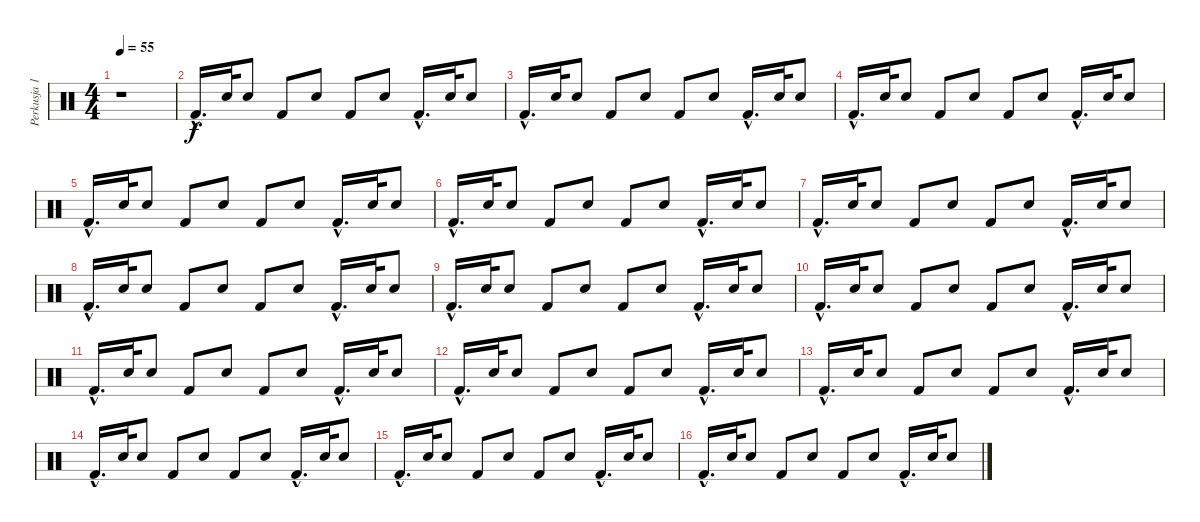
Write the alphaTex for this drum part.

\track ("Perkusja 1" "Perkusja 1") {instrument percussion}
\staff {score}
\articulation defaults
\ts (4 4)
\tempo 55
\clef neutral
\ks c
r.1{dy f} |
"Kick (hit) 2"{hac}.16{d} "Electric Snare (hit)".32 "Electric Snare (hit)".8 "Kick (hit) 2".8 "Electric Snare (hit)".8 "Kick (hit) 2".8 "Electric Snare (hit)".8 "Kick (hit) 2"{hac}.16{d} "Electric Snare (hit)".32 "Electric Snare (hit)".8 |
"Kick (hit) 2"{hac}.16{d} "Electric Snare (hit)".32 "Electric Snare (hit)".8 "Kick (hit) 2".8 "Electric Snare (hit)".8 "Kick (hit) 2".8 "Electric Snare (hit)".8 "Kick (hit) 2"{hac}.16{d} "Electric Snare (hit)".32 "Electric Snare (hit)".8 |
"Kick (hit) 2"{hac}.16{d} "Electric Snare (hit)".32 "Electric Snare (hit)".8 "Kick (hit) 2".8 "Electric Snare (hit)".8 "Kick (hit) 2".8 "Electric Snare (hit)".8 "Kick (hit) 2"{hac}.16{d} "Electric Snare (hit)".32 "Electric Snare (hit)".8 |
"Kick (hit) 2"{hac}.16{d} "Electric Snare (hit)".32 "Electric Snare (hit)".8 "Kick (hit) 2".8 "Electric Snare (hit)".8 "Kick (hit) 2".8 "Electric Snare (hit)".8 "Kick (hit) 2"{hac}.16{d} "Electric Snare (hit)".32 "Electric Snare (hit)".8 |
"Kick (hit) 2"{hac}.16{d} "Electric Snare (hit)".32 "Electric Snare (hit)".8 "Kick (hit) 2".8 "Electric Snare (hit)".8 "Kick (hit) 2".8 "Electric Snare (hit)".8 "Kick (hit) 2"{hac}.16{d} "Electric Snare (hit)".32 "Electric Snare (hit)".8 |
"Kick (hit) 2"{hac}.16{d} "Electric Snare (hit)".32 "Electric Snare (hit)".8 "Kick (hit) 2".8 "Electric Snare (hit)".8 "Kick (hit) 2".8 "Electric Snare (hit)".8 "Kick (hit) 2"{hac}.16{d} "Electric Snare (hit)".32 "Electric Snare (hit)".8 |
"Kick (hit) 2"{hac}.16{d} "Electric Snare (hit)".32 "Electric Snare (hit)".8 "Kick (hit) 2".8 "Electric Snare (hit)".8 "Kick (hit) 2".8 "Electric Snare (hit)".8 "Kick (hit) 2"{hac}.16{d} "Electric Snare (hit)".32 "Electric Snare (hit)".8 |
"Kick (hit) 2"{hac}.16{d} "Electric Snare (hit)".32 "Electric Snare (hit)".8 "Kick (hit) 2".8 "Electric Snare (hit)".8 "Kick (hit) 2".8 "Electric Snare (hit)".8 "Kick (hit) 2"{hac}.16{d} "Electric Snare (hit)".32 "Electric Snare (hit)".8 |
"Kick (hit) 2"{hac}.16{d} "Electric Snare (hit)".32 "Electric Snare (hit)".8 "Kick (hit) 2".8 "Electric Snare (hit)".8 "Kick (hit) 2".8 "Electric Snare (hit)".8 "Kick (hit) 2"{hac}.16{d} "Electric Snare (hit)".32 "Electric Snare (hit)".8 |
"Kick (hit) 2"{hac}.16{d} "Electric Snare (hit)".32 "Electric Snare (hit)".8 "Kick (hit) 2".8 "Electric Snare (hit)".8 "Kick (hit) 2".8 "Electric Snare (hit)".8 "Kick (hit) 2"{hac}.16{d} "Electric Snare (hit)".32 "Electric Snare (hit)".8 |
"Kick (hit) 2"{hac}.16{d} "Electric Snare (hit)".32 "Electric Snare (hit)".8 "Kick (hit) 2".8 "Electric Snare (hit)".8 "Kick (hit) 2".8 "Electric Snare (hit)".8 "Kick (hit) 2"{hac}.16{d} "Electric Snare (hit)".32 "Electric Snare (hit)".8 |
"Kick (hit) 2"{hac}.16{d} "Electric Snare (hit)".32 "Electric Snare (hit)".8 "Kick (hit) 2".8 "Electric Snare (hit)".8 "Kick (hit) 2".8 "Electric Snare (hit)".8 "Kick (hit) 2"{hac}.16{d} "Electric Snare (hit)".32 "Electric Snare (hit)".8 |
"Kick (hit) 2"{hac}.16{d} "Electric Snare (hit)".32 "Electric Snare (hit)".8 "Kick (hit) 2".8 "Electric Snare (hit)".8 "Kick (hit) 2".8 "Electric Snare (hit)".8 "Kick (hit) 2"{hac}.16{d} "Electric Snare (hit)".32 "Electric Snare (hit)".8 |
"Kick (hit) 2"{hac}.16{d} "Electric Snare (hit)".32 "Electric Snare (hit)".8 "Kick (hit) 2".8 "Electric Snare (hit)".8 "Kick (hit) 2".8 "Electric Snare (hit)".8 "Kick (hit) 2"{hac}.16{d} "Electric Snare (hit)".32 "Electric Snare (hit)".8 |
"Kick (hit) 2"{hac}.16{d} "Electric Snare (hit)".32 "Electric Snare (hit)".8 "Kick (hit) 2".8 "Electric Snare (hit)".8 "Kick (hit) 2".8 "Electric Snare (hit)".8 "Kick (hit) 2"{hac}.16{d} "Electric Snare (hit)".32 "Electric Snare (hit)".8
